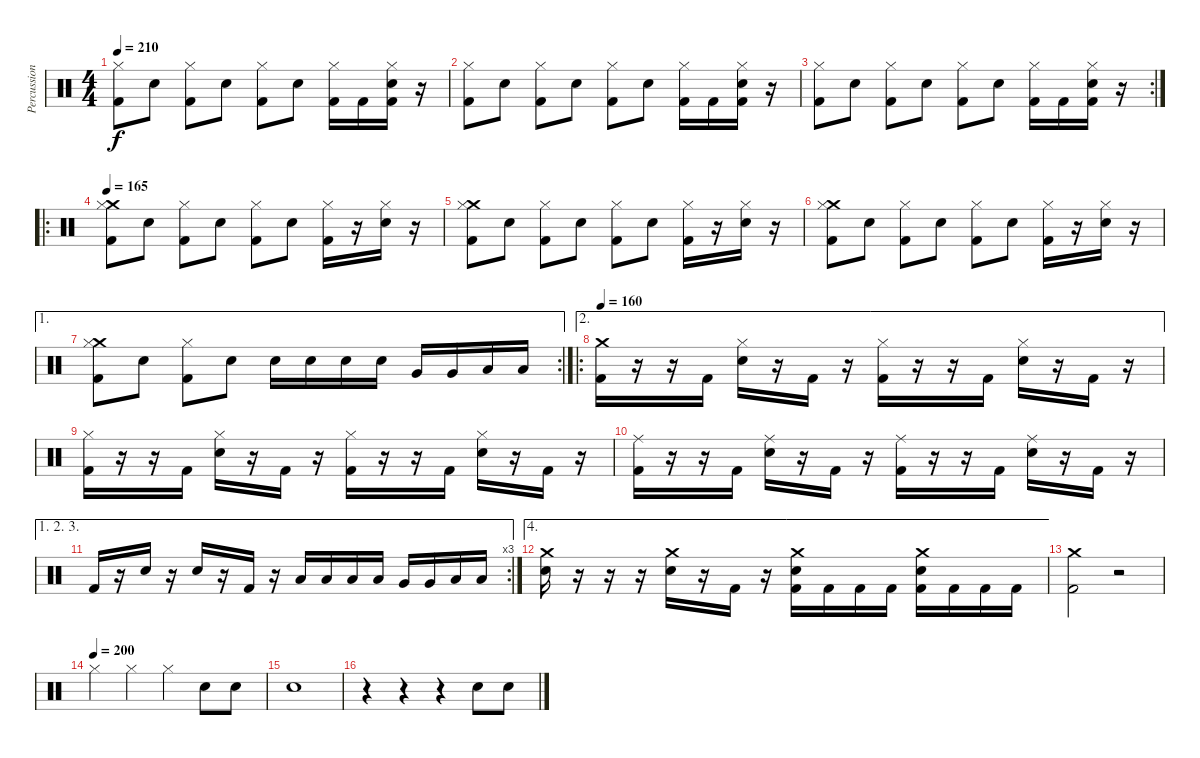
\track ("Percussion" "Percussion") {instrument percussion}
\staff {score}
\articulation defaults
\ts (4 4)
\tempo 210
\clef neutral
\ks c
("Hi-Hat (closed)" "Kick (hit) 2").8{dy f} "Snare (hit) 2".8 ("Hi-Hat (closed)" "Kick (hit) 2").8 "Snare (hit) 2".8 ("Hi-Hat (closed)" "Kick (hit) 2").8 "Snare (hit) 2".8 ("Hi-Hat (closed)" "Kick (hit) 2").16 "Kick (hit) 2".16 ("Hi-Hat (closed)" "Snare (hit) 2" "Kick (hit) 2").16 r.16 |
("Hi-Hat (closed)" "Kick (hit) 2").8 "Snare (hit) 2".8 ("Hi-Hat (closed)" "Kick (hit) 2").8 "Snare (hit) 2".8 ("Hi-Hat (closed)" "Kick (hit) 2").8 "Snare (hit) 2".8 ("Hi-Hat (closed)" "Kick (hit) 2").16 "Kick (hit) 2".16 ("Hi-Hat (closed)" "Snare (hit) 2" "Kick (hit) 2").16 r.16 |
\rc 2
("Hi-Hat (closed)" "Kick (hit) 2").8 "Snare (hit) 2".8 ("Hi-Hat (closed)" "Kick (hit) 2").8 "Snare (hit) 2".8 ("Hi-Hat (closed)" "Kick (hit) 2").8 "Snare (hit) 2".8 ("Hi-Hat (closed)" "Kick (hit) 2").16 "Kick (hit) 2".16 ("Hi-Hat (closed)" "Snare (hit) 2" "Kick (hit) 2").16 r.16 |
\ro
\tempo 165
("Crash medium (hit)" "Hi-Hat (closed)" "Kick (hit) 2").8 "Snare (hit) 2".8 ("Hi-Hat (closed)" "Kick (hit) 2").8 "Snare (hit) 2".8 ("Hi-Hat (closed)" "Kick (hit) 2").8 "Snare (hit) 2".8 ("Hi-Hat (closed)" "Kick (hit) 2").16 r.16 ("Hi-Hat (closed)" "Snare (hit) 2").16 r.16 |
("Crash medium (hit)" "Hi-Hat (closed)" "Kick (hit) 2").8 "Snare (hit) 2".8 ("Hi-Hat (closed)" "Kick (hit) 2").8 "Snare (hit) 2".8 ("Hi-Hat (closed)" "Kick (hit) 2").8 "Snare (hit) 2".8 ("Hi-Hat (closed)" "Kick (hit) 2").16 r.16 ("Hi-Hat (closed)" "Snare (hit) 2").16 r.16 |
("Crash medium (hit)" "Hi-Hat (closed)" "Kick (hit) 2").8 "Snare (hit) 2".8 ("Hi-Hat (closed)" "Kick (hit) 2").8 "Snare (hit) 2".8 ("Hi-Hat (closed)" "Kick (hit) 2").8 "Snare (hit) 2".8 ("Hi-Hat (closed)" "Kick (hit) 2").16 r.16 ("Hi-Hat (closed)" "Snare (hit) 2").16 r.16 |
\ae 1
\rc 2
("Crash medium (hit)" "Hi-Hat (closed)" "Kick (hit) 2").8 "Snare (hit) 2".8 ("Hi-Hat (closed)" "Kick (hit) 2").8 "Snare (hit) 2".8 "Snare (hit) 2".16 "Snare (hit) 2".16 "Snare (hit) 2".16 "Snare (hit) 2".16 "Very Low Tom (hit)".16 "Very Low Tom (hit)".16 "Low Floor Tom (hit)".16 "Low Floor Tom (hit)".16 |
\ae 2
\ro
\tempo 160
("Crash medium (hit)" "Kick (hit) 2").16 r.16 r.16 "Kick (hit) 2".16 ("Hi-Hat (closed)" "Snare (hit) 2").16 r.16 "Kick (hit) 2".16 r.16 ("Hi-Hat (closed)" "Kick (hit) 2").16 r.16 r.16 "Kick (hit) 2".16 ("Hi-Hat (closed)" "Snare (hit) 2").16 r.16 "Kick (hit) 2".16 r.16 |
("Hi-Hat (closed)" "Kick (hit) 2").16 r.16 r.16 "Kick (hit) 2".16 ("Hi-Hat (closed)" "Snare (hit) 2").16 r.16 "Kick (hit) 2".16 r.16 ("Hi-Hat (closed)" "Kick (hit) 2").16 r.16 r.16 "Kick (hit) 2".16 ("Hi-Hat (closed)" "Snare (hit) 2").16 r.16 "Kick (hit) 2".16 r.16 |
("Ride (middle)" "Kick (hit) 2").16 r.16 r.16 "Kick (hit) 2".16 ("Ride (middle)" "Snare (hit) 2").16 r.16 "Kick (hit) 2".16 r.16 ("Ride (middle)" "Kick (hit) 2").16 r.16 r.16 "Kick (hit) 2".16 ("Ride (middle)" "Snare (hit) 2").16 r.16 "Kick (hit) 2".16 r.16 |
\ae (1 2 3)
\rc 3 "Kick (hit) 2".16
r.16 "Snare (hit) 2".16 r.16 "Snare (hit) 2".16 r.16 "Kick (hit) 2".16 r.16 "Low Tom (hit)".16 "Low Tom (hit)".16 "Low Tom (hit)".16 "Low Tom (hit)".16 "Very Low Tom (hit)".16 "Very Low Tom (hit)".16 "Low Floor Tom (hit)".16 "Low Floor Tom (hit)".16 |
\ae 4
("Crash medium (hit)" "Snare (hit) 2").16 r.16 r.16 r.16 ("Crash medium (hit)" "Snare (hit) 2").16 r.16 "Kick (hit) 2".16 r.16 ("Crash medium (hit)" "Snare (hit) 2" "Kick (hit) 2").16 "Kick (hit) 2".16 "Kick (hit) 2".16 "Kick (hit) 2".16 ("Crash medium (hit)" "Snare (hit) 2" "Kick (hit) 2").16 "Kick (hit) 2".16 "Kick (hit) 2".16 "Kick (hit) 2".16 |
("Crash medium (hit)" "Kick (hit) 2").2 r.2 |
\tempo (200)
"Hi-Hat (closed)".4 "Hi-Hat (closed)".4 "Hi-Hat (closed)".4 "Snare (hit) 2".8 "Snare (hit) 2".8 |
"Snare (hit) 2".1 |
r.4 r.4 r.4 "Snare (hit) 2".8 "Snare (hit) 2".8
